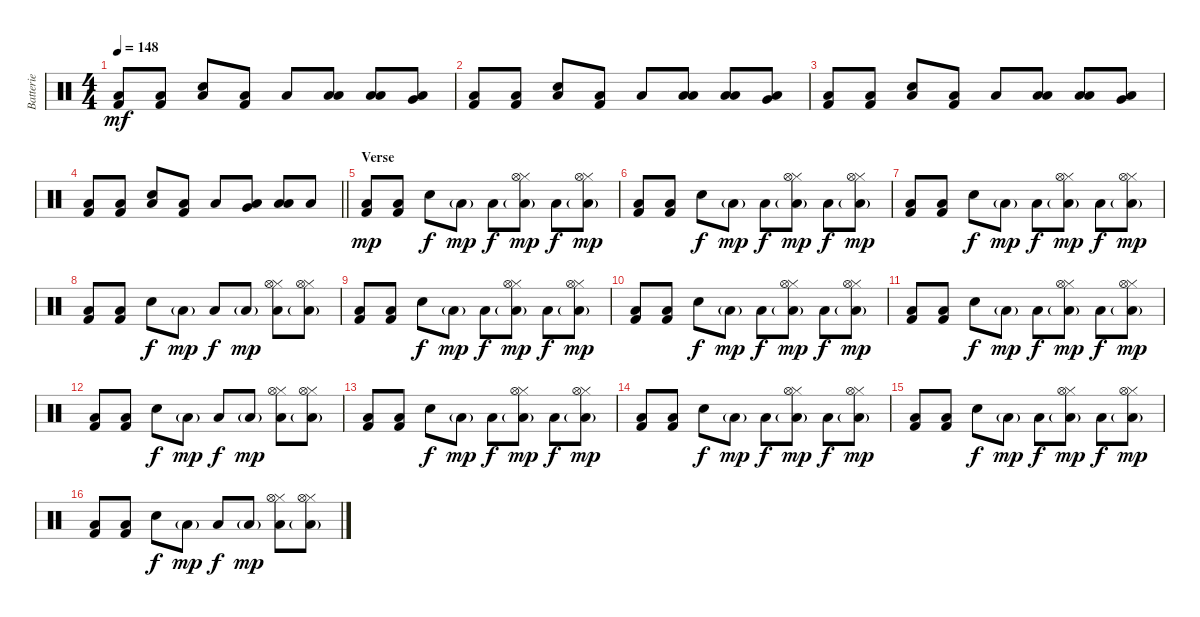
\track ("Batterie" "Batterie") {instrument percussion}
\staff {score}
\articulation defaults
\ts (4 4)
\tempo 148
\clef neutral
\ks c
("Low Floor Tom (hit)" "Kick (hit) 2").8{dy mf} ("Low Floor Tom (hit)" "Kick (hit) 2").8 ("Low Floor Tom (hit)" "Snare (hit) 2").8 ("Low Floor Tom (hit)" "Kick (hit) 2").8 "Low Floor Tom (hit)".8 ("Low Floor Tom (hit)" "Low Tom (hit)").8 ("Low Floor Tom (hit)" "Low Floor Tom (hit)").8 ("Low Floor Tom (hit)" "Very Low Tom (hit)").8 |
("Low Floor Tom (hit)" "Kick (hit) 2").8 ("Low Floor Tom (hit)" "Kick (hit) 2").8 ("Low Floor Tom (hit)" "Snare (hit) 2").8 ("Low Floor Tom (hit)" "Kick (hit) 2").8 "Low Floor Tom (hit)".8 ("Low Floor Tom (hit)" "Low Tom (hit)").8 ("Low Floor Tom (hit)" "Low Floor Tom (hit)").8 ("Low Floor Tom (hit)" "Very Low Tom (hit)").8 |
("Low Floor Tom (hit)" "Kick (hit) 2").8 ("Low Floor Tom (hit)" "Kick (hit) 2").8 ("Low Floor Tom (hit)" "Snare (hit) 2").8 ("Low Floor Tom (hit)" "Kick (hit) 2").8 "Low Floor Tom (hit)".8 ("Low Floor Tom (hit)" "Low Tom (hit)").8 ("Low Floor Tom (hit)" "Low Floor Tom (hit)").8 ("Low Floor Tom (hit)" "Very Low Tom (hit)").8 |
\barLineRight lightlight
("Low Floor Tom (hit)" "Kick (hit) 2").8 ("Low Floor Tom (hit)" "Kick (hit) 2").8 ("Low Floor Tom (hit)" "Snare (hit) 2").8 ("Low Floor Tom (hit)" "Kick (hit) 2").8 "Low Floor Tom (hit)".8 ("Low Floor Tom (hit)" "Very Low Tom (hit)").8 ("Low Floor Tom (hit)" "Low Floor Tom (hit)").8 "Low Floor Tom (hit)".8 |
\section ("" "Verse")
("Low Floor Tom (hit)" "Kick (hit) 2").8{dy mp} ("Low Floor Tom (hit)" "Kick (hit) 2").8 "Snare (hit) 2".8{dy f} "Low Floor Tom (hit)"{g}.8{dy mp} "Low Floor Tom (hit)".8{dy f} ("Hi-Hat (closed)" "Hi-Hat (open)" "Low Floor Tom (hit)"{g}).8{dy mp} "Low Floor Tom (hit)".8{dy f} ("Hi-Hat (closed)" "Hi-Hat (open)" "Low Floor Tom (hit)"{g}).8{dy mp} |
("Low Floor Tom (hit)" "Kick (hit) 2").8 ("Low Floor Tom (hit)" "Kick (hit) 2").8 "Snare (hit) 2".8{dy f} "Low Floor Tom (hit)"{g}.8{dy mp} "Low Floor Tom (hit)".8{dy f} ("Hi-Hat (closed)" "Hi-Hat (open)" "Low Floor Tom (hit)"{g}).8{dy mp} "Low Floor Tom (hit)".8{dy f} ("Hi-Hat (closed)" "Hi-Hat (open)" "Low Floor Tom (hit)"{g}).8{dy mp} |
("Low Floor Tom (hit)" "Kick (hit) 2").8 ("Low Floor Tom (hit)" "Kick (hit) 2").8 "Snare (hit) 2".8{dy f} "Low Floor Tom (hit)"{g}.8{dy mp} "Low Floor Tom (hit)".8{dy f} ("Hi-Hat (closed)" "Hi-Hat (open)" "Low Floor Tom (hit)"{g}).8{dy mp} "Low Floor Tom (hit)".8{dy f} ("Hi-Hat (closed)" "Hi-Hat (open)" "Low Floor Tom (hit)"{g}).8{dy mp} |
("Low Floor Tom (hit)" "Kick (hit) 2").8 ("Low Floor Tom (hit)" "Kick (hit) 2").8 "Snare (hit) 2".8{dy f} "Low Floor Tom (hit)"{g}.8{dy mp} "Low Floor Tom (hit)".8{dy f} "Low Floor Tom (hit)"{g}.8{dy mp} ("Hi-Hat (closed)" "Hi-Hat (open)" "Low Floor Tom (hit)").8 ("Hi-Hat (closed)" "Hi-Hat (open)" "Low Floor Tom (hit)"{g}).8 |
("Low Floor Tom (hit)" "Kick (hit) 2").8 ("Low Floor Tom (hit)" "Kick (hit) 2").8 "Snare (hit) 2".8{dy f} "Low Floor Tom (hit)"{g}.8{dy mp} "Low Floor Tom (hit)".8{dy f} ("Hi-Hat (closed)" "Hi-Hat (open)" "Low Floor Tom (hit)"{g}).8{dy mp} "Low Floor Tom (hit)".8{dy f} ("Hi-Hat (closed)" "Hi-Hat (open)" "Low Floor Tom (hit)"{g}).8{dy mp} |
("Low Floor Tom (hit)" "Kick (hit) 2").8 ("Low Floor Tom (hit)" "Kick (hit) 2").8 "Snare (hit) 2".8{dy f} "Low Floor Tom (hit)"{g}.8{dy mp} "Low Floor Tom (hit)".8{dy f} ("Hi-Hat (closed)" "Hi-Hat (open)" "Low Floor Tom (hit)"{g}).8{dy mp} "Low Floor Tom (hit)".8{dy f} ("Hi-Hat (closed)" "Hi-Hat (open)" "Low Floor Tom (hit)"{g}).8{dy mp} |
("Low Floor Tom (hit)" "Kick (hit) 2").8 ("Low Floor Tom (hit)" "Kick (hit) 2").8 "Snare (hit) 2".8{dy f} "Low Floor Tom (hit)"{g}.8{dy mp} "Low Floor Tom (hit)".8{dy f} ("Hi-Hat (closed)" "Hi-Hat (open)" "Low Floor Tom (hit)"{g}).8{dy mp} "Low Floor Tom (hit)".8{dy f} ("Hi-Hat (closed)" "Hi-Hat (open)" "Low Floor Tom (hit)"{g}).8{dy mp} |
("Low Floor Tom (hit)" "Kick (hit) 2").8 ("Low Floor Tom (hit)" "Kick (hit) 2").8 "Snare (hit) 2".8{dy f} "Low Floor Tom (hit)"{g}.8{dy mp} "Low Floor Tom (hit)".8{dy f} "Low Floor Tom (hit)"{g}.8{dy mp} ("Hi-Hat (closed)" "Hi-Hat (open)" "Low Floor Tom (hit)").8 ("Hi-Hat (closed)" "Hi-Hat (open)" "Low Floor Tom (hit)"{g}).8 |
("Low Floor Tom (hit)" "Kick (hit) 2").8 ("Low Floor Tom (hit)" "Kick (hit) 2").8 "Snare (hit) 2".8{dy f} "Low Floor Tom (hit)"{g}.8{dy mp} "Low Floor Tom (hit)".8{dy f} ("Hi-Hat (closed)" "Hi-Hat (open)" "Low Floor Tom (hit)"{g}).8{dy mp} "Low Floor Tom (hit)".8{dy f} ("Hi-Hat (closed)" "Hi-Hat (open)" "Low Floor Tom (hit)"{g}).8{dy mp} |
("Low Floor Tom (hit)" "Kick (hit) 2").8 ("Low Floor Tom (hit)" "Kick (hit) 2").8 "Snare (hit) 2".8{dy f} "Low Floor Tom (hit)"{g}.8{dy mp} "Low Floor Tom (hit)".8{dy f} ("Hi-Hat (closed)" "Hi-Hat (open)" "Low Floor Tom (hit)"{g}).8{dy mp} "Low Floor Tom (hit)".8{dy f} ("Hi-Hat (closed)" "Hi-Hat (open)" "Low Floor Tom (hit)"{g}).8{dy mp} |
("Low Floor Tom (hit)" "Kick (hit) 2").8 ("Low Floor Tom (hit)" "Kick (hit) 2").8 "Snare (hit) 2".8{dy f} "Low Floor Tom (hit)"{g}.8{dy mp} "Low Floor Tom (hit)".8{dy f} ("Hi-Hat (closed)" "Hi-Hat (open)" "Low Floor Tom (hit)"{g}).8{dy mp} "Low Floor Tom (hit)".8{dy f} ("Hi-Hat (closed)" "Hi-Hat (open)" "Low Floor Tom (hit)"{g}).8{dy mp} |
("Low Floor Tom (hit)" "Kick (hit) 2").8 ("Low Floor Tom (hit)" "Kick (hit) 2").8 "Snare (hit) 2".8{dy f} "Low Floor Tom (hit)"{g}.8{dy mp} "Low Floor Tom (hit)".8{dy f} "Low Floor Tom (hit)"{g}.8{dy mp} ("Hi-Hat (closed)" "Hi-Hat (open)" "Low Floor Tom (hit)").8 ("Hi-Hat (closed)" "Hi-Hat (open)" "Low Floor Tom (hit)"{g}).8
